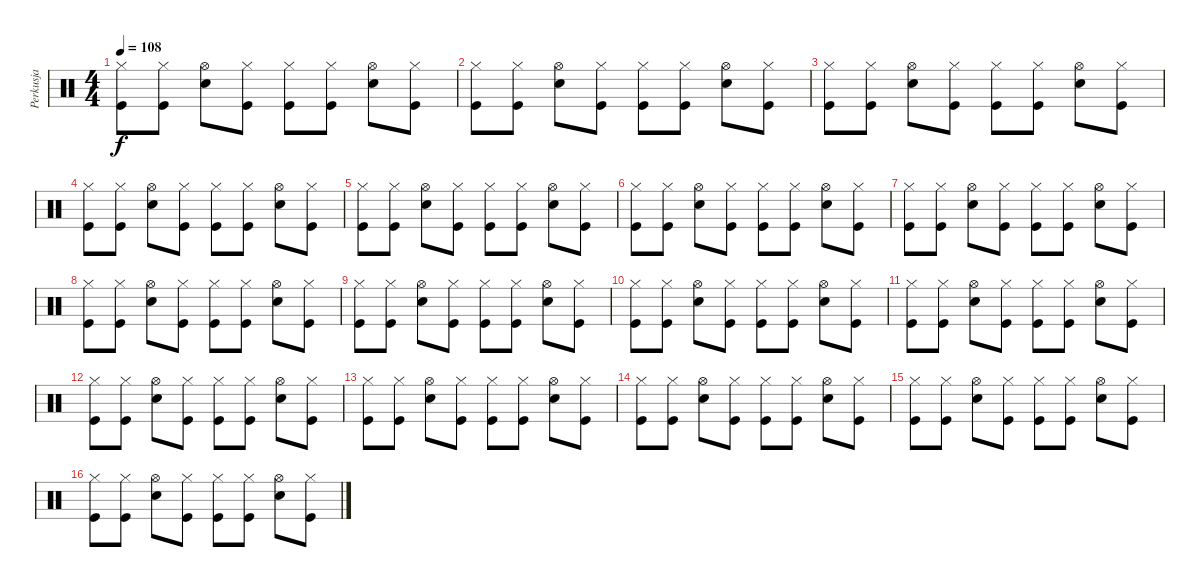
\track ("Perkusja" "Perkusja") {instrument percussion}
\staff {score}
\articulation defaults
\ts (4 4)
\tempo 108
\clef neutral
\ks c
("Hi-Hat (closed)" "Kick (hit)").8{dy f} ("Hi-Hat (closed)" "Kick (hit)").8 ("Hi-Hat (open)" "Electric Snare (hit)").8 ("Hi-Hat (closed)" "Kick (hit)").8 ("Hi-Hat (closed)" "Kick (hit)").8 ("Hi-Hat (closed)" "Kick (hit)").8 ("Hi-Hat (open)" "Electric Snare (hit)").8 ("Hi-Hat (closed)" "Kick (hit)").8 |
("Hi-Hat (closed)" "Kick (hit)").8 ("Hi-Hat (closed)" "Kick (hit)").8 ("Hi-Hat (open)" "Electric Snare (hit)").8 ("Hi-Hat (closed)" "Kick (hit)").8 ("Hi-Hat (closed)" "Kick (hit)").8 ("Hi-Hat (closed)" "Kick (hit)").8 ("Hi-Hat (open)" "Electric Snare (hit)").8 ("Hi-Hat (closed)" "Kick (hit)").8 |
("Hi-Hat (closed)" "Kick (hit)").8 ("Hi-Hat (closed)" "Kick (hit)").8 ("Hi-Hat (open)" "Electric Snare (hit)").8 ("Hi-Hat (closed)" "Kick (hit)").8 ("Hi-Hat (closed)" "Kick (hit)").8 ("Hi-Hat (closed)" "Kick (hit)").8 ("Hi-Hat (open)" "Electric Snare (hit)").8 ("Hi-Hat (closed)" "Kick (hit)").8 |
("Hi-Hat (closed)" "Kick (hit)").8 ("Hi-Hat (closed)" "Kick (hit)").8 ("Hi-Hat (open)" "Electric Snare (hit)").8 ("Hi-Hat (closed)" "Kick (hit)").8 ("Hi-Hat (closed)" "Kick (hit)").8 ("Hi-Hat (closed)" "Kick (hit)").8 ("Hi-Hat (open)" "Electric Snare (hit)").8 ("Hi-Hat (closed)" "Kick (hit)").8 |
("Hi-Hat (closed)" "Kick (hit)").8 ("Hi-Hat (closed)" "Kick (hit)").8 ("Hi-Hat (open)" "Electric Snare (hit)").8 ("Hi-Hat (closed)" "Kick (hit)").8 ("Hi-Hat (closed)" "Kick (hit)").8 ("Hi-Hat (closed)" "Kick (hit)").8 ("Hi-Hat (open)" "Electric Snare (hit)").8 ("Hi-Hat (closed)" "Kick (hit)").8 |
("Hi-Hat (closed)" "Kick (hit)").8 ("Hi-Hat (closed)" "Kick (hit)").8 ("Hi-Hat (open)" "Electric Snare (hit)").8 ("Hi-Hat (closed)" "Kick (hit)").8 ("Hi-Hat (closed)" "Kick (hit)").8 ("Hi-Hat (closed)" "Kick (hit)").8 ("Hi-Hat (open)" "Electric Snare (hit)").8 ("Hi-Hat (closed)" "Kick (hit)").8 |
("Hi-Hat (closed)" "Kick (hit)").8 ("Hi-Hat (closed)" "Kick (hit)").8 ("Hi-Hat (open)" "Electric Snare (hit)").8 ("Hi-Hat (closed)" "Kick (hit)").8 ("Hi-Hat (closed)" "Kick (hit)").8 ("Hi-Hat (closed)" "Kick (hit)").8 ("Hi-Hat (open)" "Electric Snare (hit)").8 ("Hi-Hat (closed)" "Kick (hit)").8 |
("Hi-Hat (closed)" "Kick (hit)").8 ("Hi-Hat (closed)" "Kick (hit)").8 ("Hi-Hat (open)" "Electric Snare (hit)").8 ("Hi-Hat (closed)" "Kick (hit)").8 ("Hi-Hat (closed)" "Kick (hit)").8 ("Hi-Hat (closed)" "Kick (hit)").8 ("Hi-Hat (open)" "Electric Snare (hit)").8 ("Hi-Hat (closed)" "Kick (hit)").8 |
("Hi-Hat (closed)" "Kick (hit)").8 ("Hi-Hat (closed)" "Kick (hit)").8 ("Hi-Hat (open)" "Electric Snare (hit)").8 ("Hi-Hat (closed)" "Kick (hit)").8 ("Hi-Hat (closed)" "Kick (hit)").8 ("Hi-Hat (closed)" "Kick (hit)").8 ("Hi-Hat (open)" "Electric Snare (hit)").8 ("Hi-Hat (closed)" "Kick (hit)").8 |
("Hi-Hat (closed)" "Kick (hit)").8 ("Hi-Hat (closed)" "Kick (hit)").8 ("Hi-Hat (open)" "Electric Snare (hit)").8 ("Hi-Hat (closed)" "Kick (hit)").8 ("Hi-Hat (closed)" "Kick (hit)").8 ("Hi-Hat (closed)" "Kick (hit)").8 ("Hi-Hat (open)" "Electric Snare (hit)").8 ("Hi-Hat (closed)" "Kick (hit)").8 |
("Hi-Hat (closed)" "Kick (hit)").8 ("Hi-Hat (closed)" "Kick (hit)").8 ("Hi-Hat (open)" "Electric Snare (hit)").8 ("Hi-Hat (closed)" "Kick (hit)").8 ("Hi-Hat (closed)" "Kick (hit)").8 ("Hi-Hat (closed)" "Kick (hit)").8 ("Hi-Hat (open)" "Electric Snare (hit)").8 ("Hi-Hat (closed)" "Kick (hit)").8 |
("Hi-Hat (closed)" "Kick (hit)").8 ("Hi-Hat (closed)" "Kick (hit)").8 ("Hi-Hat (open)" "Electric Snare (hit)").8 ("Hi-Hat (closed)" "Kick (hit)").8 ("Hi-Hat (closed)" "Kick (hit)").8 ("Hi-Hat (closed)" "Kick (hit)").8 ("Hi-Hat (open)" "Electric Snare (hit)").8 ("Hi-Hat (closed)" "Kick (hit)").8 |
("Hi-Hat (closed)" "Kick (hit)").8 ("Hi-Hat (closed)" "Kick (hit)").8 ("Hi-Hat (open)" "Electric Snare (hit)").8 ("Hi-Hat (closed)" "Kick (hit)").8 ("Hi-Hat (closed)" "Kick (hit)").8 ("Hi-Hat (closed)" "Kick (hit)").8 ("Hi-Hat (open)" "Electric Snare (hit)").8 ("Hi-Hat (closed)" "Kick (hit)").8 |
("Hi-Hat (closed)" "Kick (hit)").8 ("Hi-Hat (closed)" "Kick (hit)").8 ("Hi-Hat (open)" "Electric Snare (hit)").8 ("Hi-Hat (closed)" "Kick (hit)").8 ("Hi-Hat (closed)" "Kick (hit)").8 ("Hi-Hat (closed)" "Kick (hit)").8 ("Hi-Hat (open)" "Electric Snare (hit)").8 ("Hi-Hat (closed)" "Kick (hit)").8 |
("Hi-Hat (closed)" "Kick (hit)").8 ("Hi-Hat (closed)" "Kick (hit)").8 ("Hi-Hat (open)" "Electric Snare (hit)").8 ("Hi-Hat (closed)" "Kick (hit)").8 ("Hi-Hat (closed)" "Kick (hit)").8 ("Hi-Hat (closed)" "Kick (hit)").8 ("Hi-Hat (open)" "Electric Snare (hit)").8 ("Hi-Hat (closed)" "Kick (hit)").8 |
("Hi-Hat (closed)" "Kick (hit)").8 ("Hi-Hat (closed)" "Kick (hit)").8 ("Hi-Hat (open)" "Electric Snare (hit)").8 ("Hi-Hat (closed)" "Kick (hit)").8 ("Hi-Hat (closed)" "Kick (hit)").8 ("Hi-Hat (closed)" "Kick (hit)").8 ("Hi-Hat (open)" "Electric Snare (hit)").8 ("Hi-Hat (closed)" "Kick (hit)").8
